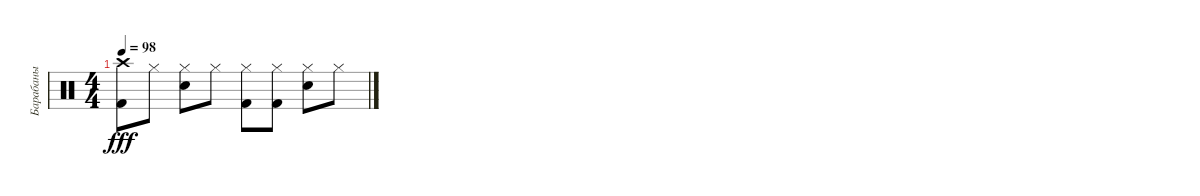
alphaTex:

\track ("Барабаны" "Барабаны") {instrument percussion}
\staff {score}
\articulation defaults
\ts (4 4)
\tempo 98
\clef neutral
\ks c
("Crash high (hit)" "Kick (hit) 2").8{dy fff} "Hi-Hat (closed)".8 ("Hi-Hat (closed)" "Snare (hit) 2").8 "Hi-Hat (closed)".8 ("Hi-Hat (closed)" "Kick (hit) 2").8 ("Hi-Hat (closed)" "Kick (hit) 2").8 ("Hi-Hat (closed)" "Snare (hit) 2").8 "Hi-Hat (closed)".8
